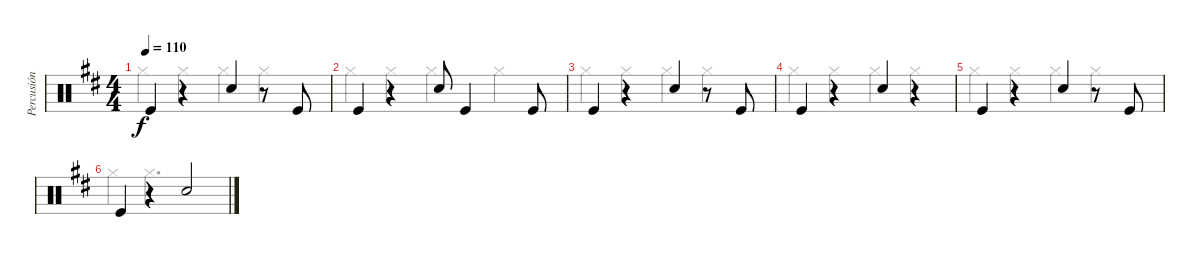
\track ("Percusión" "Percusión") {instrument percussion}
\staff {score}
\articulation defaults
\voice
\ts (4 4)
\tempo 110
\clef neutral
\ks bminor "Kick (hit)".4{dy f}
r.4 "Snare (hit) 2".4 r.8 "Kick (hit)".8 |
"Kick (hit)".4 r.4 "Snare (hit) 2".8 "Kick (hit)".4 "Kick (hit)".8 |
"Kick (hit)".4 r.4 "Snare (hit) 2".4 r.8 "Kick (hit)".8 |
"Kick (hit)".4 r.4 "Snare (hit) 2".4 r.4 |
"Kick (hit)".4 r.4 "Snare (hit) 2".4 r.8 "Kick (hit)".8 |
"Kick (hit)".4 r.4 "Snare (hit) 2".2 |
\voice
\clef neutral
\ottava regular
\simile none
\ks bminor "Hi-Hat (closed)".4{dy f} "Hi-Hat (closed)".4 "Hi-Hat (closed)".4 "Hi-Hat (closed)".4
|
"Hi-Hat (closed)".4 "Hi-Hat (closed)".4 "Hi-Hat (closed)".4 "Hi-Hat (closed)".4 |
"Hi-Hat (closed)".4 "Hi-Hat (closed)".4 "Hi-Hat (closed)".4 "Hi-Hat (closed)".4 |
"Hi-Hat (closed)".4 "Hi-Hat (closed)".4 "Hi-Hat (closed)".4 "Hi-Hat (closed)".4 |
"Hi-Hat (closed)".4 "Hi-Hat (closed)".4 "Hi-Hat (closed)".4 "Hi-Hat (closed)".4 |
"Hi-Hat (closed)".4 "Hi-Hat (closed)".2{d} |
